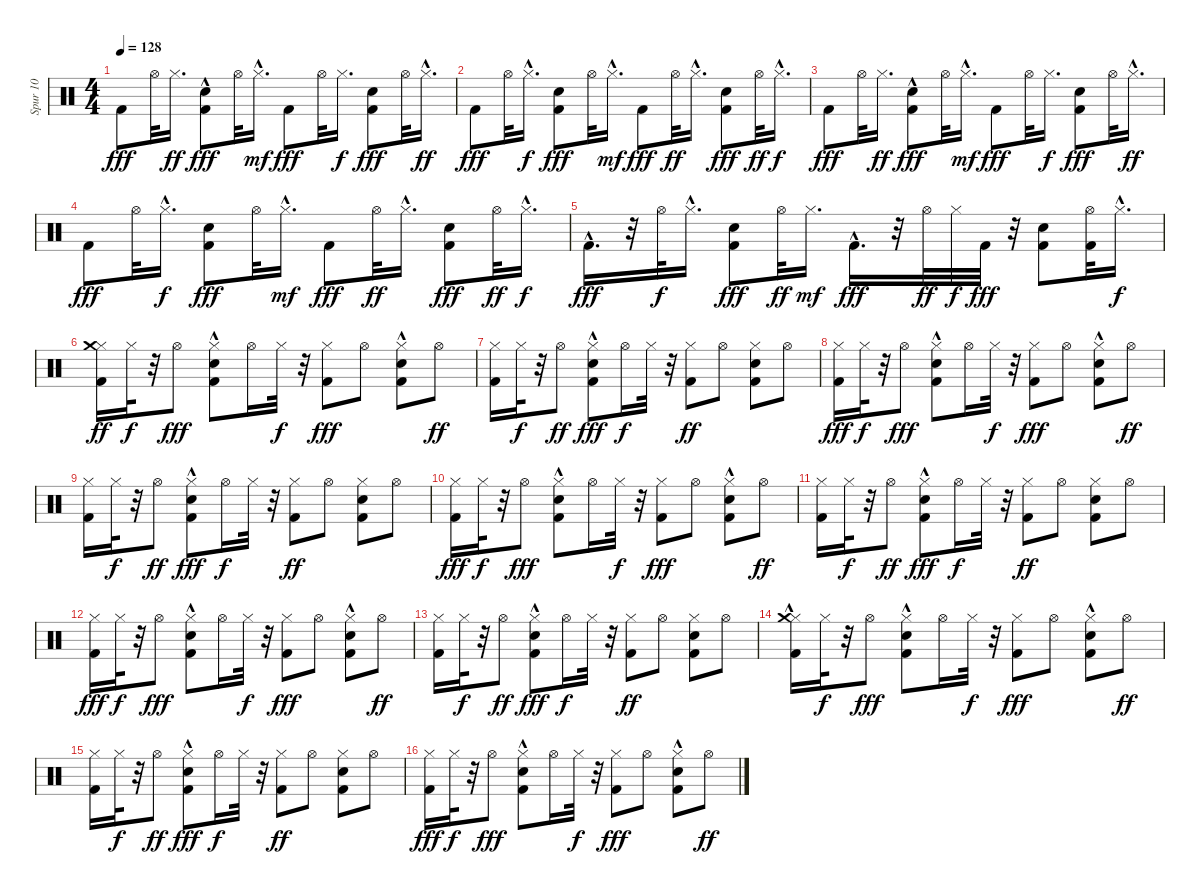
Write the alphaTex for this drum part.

\track ("Spur 10" "Spur 10") {instrument percussion}
\staff {score}
\articulation defaults
\ts (4 4)
\tempo 128
\clef neutral
\ks c "Kick (hit) 2".8{dy fff} "Hi-Hat (open)".32 "Hi-Hat (closed)".16{d dy ff}
("Hand Clap (hit)"{hac} "Kick (hit) 2").8{dy fff} "Hi-Hat (open)".32 "Hi-Hat (closed)"{hac}.16{d dy mf} "Kick (hit) 2".8{dy fff} "Hi-Hat (open)".32 "Hi-Hat (closed)".16{d dy f} ("Hand Clap (hit)" "Kick (hit) 2").8{dy fff} "Hi-Hat (open)".32 "Hi-Hat (closed)"{hac}.16{d dy ff} |
"Kick (hit) 2".8{dy fff} "Hi-Hat (open)".32 "Hi-Hat (closed)"{hac}.16{d dy f} ("Hand Clap (hit)" "Kick (hit) 2").8{dy fff} "Hi-Hat (open)".32 "Hi-Hat (closed)"{hac}.16{d dy mf} "Kick (hit) 2".8{dy fff} "Hi-Hat (open)".32{dy ff} "Hi-Hat (closed)"{hac}.16{d} ("Hand Clap (hit)" "Kick (hit) 2").8{dy fff} "Hi-Hat (open)".32{dy ff} "Hi-Hat (closed)"{hac}.16{d dy f} |
"Kick (hit) 2".8{dy fff} "Hi-Hat (open)".32 "Hi-Hat (closed)".16{d dy ff} ("Hand Clap (hit)"{hac} "Kick (hit) 2").8{dy fff} "Hi-Hat (open)".32 "Hi-Hat (closed)"{hac}.16{d dy mf} "Kick (hit) 2".8{dy fff} "Hi-Hat (open)".32 "Hi-Hat (closed)".16{d dy f} ("Hand Clap (hit)" "Kick (hit) 2").8{dy fff} "Hi-Hat (open)".32 "Hi-Hat (closed)"{hac}.16{d dy ff} |
"Kick (hit) 2".8{dy fff} "Hi-Hat (open)".32 "Hi-Hat (closed)"{hac}.16{d dy f} ("Hand Clap (hit)" "Kick (hit) 2").8{dy fff} "Hi-Hat (open)".32 "Hi-Hat (closed)"{hac}.16{d dy mf} "Kick (hit) 2".8{dy fff} "Hi-Hat (open)".32{dy ff} "Hi-Hat (closed)"{hac}.16{d} ("Hand Clap (hit)" "Kick (hit) 2").8{dy fff} "Hi-Hat (open)".32{dy ff} "Hi-Hat (closed)"{hac}.16{d dy f} |
"Kick (hit) 2"{hac}.16{d dy fff} r.32 "Hi-Hat (open)".32{dy f} "Hi-Hat (closed)"{hac}.16{d} ("Hand Clap (hit)" "Kick (hit) 2").8{dy fff} "Hi-Hat (open)".32{dy ff} "Hi-Hat (closed)".16{d dy mf} "Kick (hit) 2"{hac}.16{d dy fff} r.32 "Hi-Hat (open)".32{dy ff} "Hi-Hat (closed)".32{dy f} "Kick (hit) 2".32{dy fff} r.32 ("Kick (hit) 2" "Hand Clap (hit)").8 ("Hi-Hat (open)" "Kick (hit) 2").32 "Hi-Hat (closed)"{hac}.16{d dy f} |
("Kick (hit) 2" "Hi-Hat (closed)" "Crash medium (hit)").16{dy ff} "Hi-Hat (closed)".32{dy f} r.32 "Hi-Hat (open)".8{dy fff} ("Kick (hit) 2"{hac} "Hi-Hat (closed)" "Hand Clap (hit)").8 "Hi-Hat (open)".16 "Hi-Hat (closed)".32{dy f} r.32 ("Hi-Hat (closed)" "Kick (hit) 2").8{dy fff} "Hi-Hat (open)".8 ("Hi-Hat (closed)" "Hand Clap (hit)" "Kick (hit) 2"{hac}).8 "Hi-Hat (open)".8{dy ff} |
("Kick (hit) 2" "Hi-Hat (closed)").16 "Hi-Hat (closed)".32{dy f} r.32 "Hi-Hat (open)".8{dy ff} ("Hand Clap (hit)" "Hi-Hat (closed)" "Kick (hit) 2"{hac}).8{dy fff} "Hi-Hat (open)".16{dy f} "Hi-Hat (closed)".32 r.32 ("Kick (hit) 2" "Hi-Hat (closed)").8{dy ff} "Hi-Hat (open)".8 ("Kick (hit) 2" "Hand Clap (hit)" "Hi-Hat (closed)").8 "Hi-Hat (open)".8 |
("Kick (hit) 2" "Hi-Hat (closed)").16{dy fff} "Hi-Hat (closed)".32{dy f} r.32 "Hi-Hat (open)".8{dy fff} ("Kick (hit) 2"{hac} "Hi-Hat (closed)" "Hand Clap (hit)").8 "Hi-Hat (open)".16 "Hi-Hat (closed)".32{dy f} r.32 ("Hi-Hat (closed)" "Kick (hit) 2").8{dy fff} "Hi-Hat (open)".8 ("Hi-Hat (closed)" "Hand Clap (hit)" "Kick (hit) 2"{hac}).8 "Hi-Hat (open)".8{dy ff} |
("Kick (hit) 2" "Hi-Hat (closed)").16 "Hi-Hat (closed)".32{dy f} r.32 "Hi-Hat (open)".8{dy ff} ("Hand Clap (hit)" "Hi-Hat (closed)" "Kick (hit) 2"{hac}).8{dy fff} "Hi-Hat (open)".16{dy f} "Hi-Hat (closed)".32 r.32 ("Kick (hit) 2" "Hi-Hat (closed)").8{dy ff} "Hi-Hat (open)".8 ("Kick (hit) 2" "Hand Clap (hit)" "Hi-Hat (closed)").8 "Hi-Hat (open)".8 |
("Kick (hit) 2" "Hi-Hat (closed)").16{dy fff} "Hi-Hat (closed)".32{dy f} r.32 "Hi-Hat (open)".8{dy fff} ("Kick (hit) 2"{hac} "Hi-Hat (closed)" "Hand Clap (hit)").8 "Hi-Hat (open)".16 "Hi-Hat (closed)".32{dy f} r.32 ("Hi-Hat (closed)" "Kick (hit) 2").8{dy fff} "Hi-Hat (open)".8 ("Hi-Hat (closed)" "Hand Clap (hit)" "Kick (hit) 2"{hac}).8 "Hi-Hat (open)".8{dy ff} |
("Kick (hit) 2" "Hi-Hat (closed)").16 "Hi-Hat (closed)".32{dy f} r.32 "Hi-Hat (open)".8{dy ff} ("Hand Clap (hit)" "Hi-Hat (closed)" "Kick (hit) 2"{hac}).8{dy fff} "Hi-Hat (open)".16{dy f} "Hi-Hat (closed)".32 r.32 ("Kick (hit) 2" "Hi-Hat (closed)").8{dy ff} "Hi-Hat (open)".8 ("Kick (hit) 2" "Hand Clap (hit)" "Hi-Hat (closed)").8 "Hi-Hat (open)".8 |
("Kick (hit) 2" "Hi-Hat (closed)").16{dy fff} "Hi-Hat (closed)".32{dy f} r.32 "Hi-Hat (open)".8{dy fff} ("Kick (hit) 2"{hac} "Hi-Hat (closed)" "Hand Clap (hit)").8 "Hi-Hat (open)".16 "Hi-Hat (closed)".32{dy f} r.32 ("Hi-Hat (closed)" "Kick (hit) 2").8{dy fff} "Hi-Hat (open)".8 ("Hi-Hat (closed)" "Hand Clap (hit)" "Kick (hit) 2"{hac}).8 "Hi-Hat (open)".8{dy ff} |
("Kick (hit) 2" "Hi-Hat (closed)").16 "Hi-Hat (closed)".32{dy f} r.32 "Hi-Hat (open)".8{dy ff} ("Hand Clap (hit)" "Hi-Hat (closed)" "Kick (hit) 2"{hac}).8{dy fff} "Hi-Hat (open)".16{dy f} "Hi-Hat (closed)".32 r.32 ("Kick (hit) 2" "Hi-Hat (closed)").8{dy ff} "Hi-Hat (open)".8 ("Kick (hit) 2" "Hand Clap (hit)" "Hi-Hat (closed)").8 "Hi-Hat (open)".8 |
("Kick (hit) 2" "Hi-Hat (closed)" "Crash medium (hit)"{hac}).16 "Hi-Hat (closed)".32{dy f} r.32 "Hi-Hat (open)".8{dy fff} ("Kick (hit) 2"{hac} "Hi-Hat (closed)" "Hand Clap (hit)").8 "Hi-Hat (open)".16 "Hi-Hat (closed)".32{dy f} r.32 ("Hi-Hat (closed)" "Kick (hit) 2").8{dy fff} "Hi-Hat (open)".8 ("Hi-Hat (closed)" "Hand Clap (hit)" "Kick (hit) 2"{hac}).8 "Hi-Hat (open)".8{dy ff} |
("Kick (hit) 2" "Hi-Hat (closed)").16 "Hi-Hat (closed)".32{dy f} r.32 "Hi-Hat (open)".8{dy ff} ("Hand Clap (hit)" "Hi-Hat (closed)" "Kick (hit) 2"{hac}).8{dy fff} "Hi-Hat (open)".16{dy f} "Hi-Hat (closed)".32 r.32 ("Kick (hit) 2" "Hi-Hat (closed)").8{dy ff} "Hi-Hat (open)".8 ("Kick (hit) 2" "Hand Clap (hit)" "Hi-Hat (closed)").8 "Hi-Hat (open)".8 |
("Kick (hit) 2" "Hi-Hat (closed)").16{dy fff} "Hi-Hat (closed)".32{dy f} r.32 "Hi-Hat (open)".8{dy fff} ("Kick (hit) 2"{hac} "Hi-Hat (closed)" "Hand Clap (hit)").8 "Hi-Hat (open)".16 "Hi-Hat (closed)".32{dy f} r.32 ("Hi-Hat (closed)" "Kick (hit) 2").8{dy fff} "Hi-Hat (open)".8 ("Hi-Hat (closed)" "Hand Clap (hit)" "Kick (hit) 2"{hac}).8 "Hi-Hat (open)".8{dy ff}
